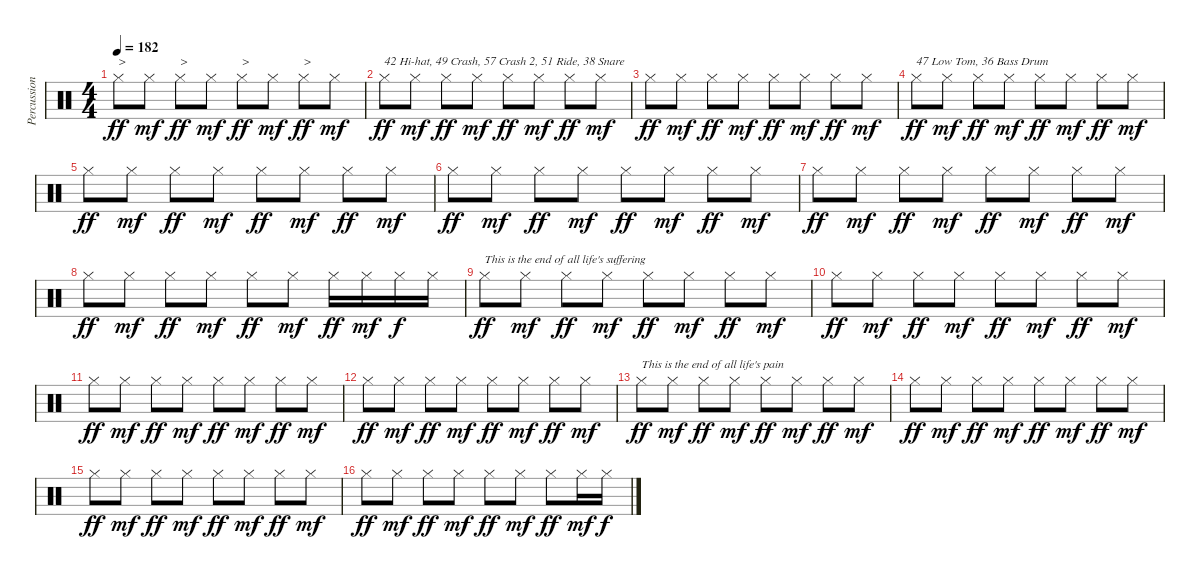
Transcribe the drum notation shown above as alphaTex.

\track ("Percussion" "Percussion") {instrument percussion}
\staff {score}
\articulation defaults
\ts (4 4)
\tempo 182
\clef neutral
\ks c "Hi-Hat (closed)".8{txt ">" dy ff} "Hi-Hat (closed)".8{dy mf} "Hi-Hat (closed)".8{txt ">" dy ff} "Hi-Hat (closed)".8{dy mf} "Hi-Hat (closed)".8{txt ">" dy ff} "Hi-Hat (closed)".8{dy mf} "Hi-Hat (closed)".8{txt ">" dy ff} "Hi-Hat (closed)".8{dy mf}
|
"Hi-Hat (closed)".8{txt "42 Hi-hat, 49 Crash, 57 Crash 2, 51 Ride, 38 Snare" dy ff} "Hi-Hat (closed)".8{dy mf} "Hi-Hat (closed)".8{dy ff} "Hi-Hat (closed)".8{dy mf} "Hi-Hat (closed)".8{dy ff} "Hi-Hat (closed)".8{dy mf} "Hi-Hat (closed)".8{dy ff} "Hi-Hat (closed)".8{dy mf} |
"Hi-Hat (closed)".8{dy ff} "Hi-Hat (closed)".8{dy mf} "Hi-Hat (closed)".8{dy ff} "Hi-Hat (closed)".8{dy mf} "Hi-Hat (closed)".8{dy ff} "Hi-Hat (closed)".8{dy mf} "Hi-Hat (closed)".8{dy ff} "Hi-Hat (closed)".8{dy mf} |
"Hi-Hat (closed)".8{txt "47 Low Tom, 36 Bass Drum" dy ff} "Hi-Hat (closed)".8{dy mf} "Hi-Hat (closed)".8{dy ff} "Hi-Hat (closed)".8{dy mf} "Hi-Hat (closed)".8{dy ff} "Hi-Hat (closed)".8{dy mf} "Hi-Hat (closed)".8{dy ff} "Hi-Hat (closed)".8{dy mf} |
"Hi-Hat (closed)".8{dy ff} "Hi-Hat (closed)".8{dy mf} "Hi-Hat (closed)".8{dy ff} "Hi-Hat (closed)".8{dy mf} "Hi-Hat (closed)".8{dy ff} "Hi-Hat (closed)".8{dy mf} "Hi-Hat (closed)".8{dy ff} "Hi-Hat (closed)".8{dy mf} |
"Hi-Hat (closed)".8{dy ff} "Hi-Hat (closed)".8{dy mf} "Hi-Hat (closed)".8{dy ff} "Hi-Hat (closed)".8{dy mf} "Hi-Hat (closed)".8{dy ff} "Hi-Hat (closed)".8{dy mf} "Hi-Hat (closed)".8{dy ff} "Hi-Hat (closed)".8{dy mf} |
"Hi-Hat (closed)".8{dy ff} "Hi-Hat (closed)".8{dy mf} "Hi-Hat (closed)".8{dy ff} "Hi-Hat (closed)".8{dy mf} "Hi-Hat (closed)".8{dy ff} "Hi-Hat (closed)".8{dy mf} "Hi-Hat (closed)".8{dy ff} "Hi-Hat (closed)".8{dy mf} |
"Hi-Hat (closed)".8{dy ff} "Hi-Hat (closed)".8{dy mf} "Hi-Hat (closed)".8{dy ff} "Hi-Hat (closed)".8{dy mf} "Hi-Hat (closed)".8{dy ff} "Hi-Hat (closed)".8{dy mf} "Hi-Hat (closed)".16{dy ff} "Hi-Hat (closed)".16{dy mf} "Hi-Hat (closed)".16{dy f} "Hi-Hat (closed)".16 |
"Hi-Hat (closed)".8{txt "This is the end of all life's suffering" dy ff} "Hi-Hat (closed)".8{dy mf} "Hi-Hat (closed)".8{dy ff} "Hi-Hat (closed)".8{dy mf} "Hi-Hat (closed)".8{dy ff} "Hi-Hat (closed)".8{dy mf} "Hi-Hat (closed)".8{dy ff} "Hi-Hat (closed)".8{dy mf} |
"Hi-Hat (closed)".8{dy ff} "Hi-Hat (closed)".8{dy mf} "Hi-Hat (closed)".8{dy ff} "Hi-Hat (closed)".8{dy mf} "Hi-Hat (closed)".8{dy ff} "Hi-Hat (closed)".8{dy mf} "Hi-Hat (closed)".8{dy ff} "Hi-Hat (closed)".8{dy mf} |
"Hi-Hat (closed)".8{dy ff} "Hi-Hat (closed)".8{dy mf} "Hi-Hat (closed)".8{dy ff} "Hi-Hat (closed)".8{dy mf} "Hi-Hat (closed)".8{dy ff} "Hi-Hat (closed)".8{dy mf} "Hi-Hat (closed)".8{dy ff} "Hi-Hat (closed)".8{dy mf} |
"Hi-Hat (closed)".8{dy ff} "Hi-Hat (closed)".8{dy mf} "Hi-Hat (closed)".8{dy ff} "Hi-Hat (closed)".8{dy mf} "Hi-Hat (closed)".8{dy ff} "Hi-Hat (closed)".8{dy mf} "Hi-Hat (closed)".8{dy ff} "Hi-Hat (closed)".8{dy mf} |
"Hi-Hat (closed)".8{txt "This is the end of all life's pain" dy ff} "Hi-Hat (closed)".8{dy mf} "Hi-Hat (closed)".8{dy ff} "Hi-Hat (closed)".8{dy mf} "Hi-Hat (closed)".8{dy ff} "Hi-Hat (closed)".8{dy mf} "Hi-Hat (closed)".8{dy ff} "Hi-Hat (closed)".8{dy mf} |
"Hi-Hat (closed)".8{dy ff} "Hi-Hat (closed)".8{dy mf} "Hi-Hat (closed)".8{dy ff} "Hi-Hat (closed)".8{dy mf} "Hi-Hat (closed)".8{dy ff} "Hi-Hat (closed)".8{dy mf} "Hi-Hat (closed)".8{dy ff} "Hi-Hat (closed)".8{dy mf} |
"Hi-Hat (closed)".8{dy ff} "Hi-Hat (closed)".8{dy mf} "Hi-Hat (closed)".8{dy ff} "Hi-Hat (closed)".8{dy mf} "Hi-Hat (closed)".8{dy ff} "Hi-Hat (closed)".8{dy mf} "Hi-Hat (closed)".8{dy ff} "Hi-Hat (closed)".8{dy mf} |
"Hi-Hat (closed)".8{dy ff} "Hi-Hat (closed)".8{dy mf} "Hi-Hat (closed)".8{dy ff} "Hi-Hat (closed)".8{dy mf} "Hi-Hat (closed)".8{dy ff} "Hi-Hat (closed)".8{dy mf} "Hi-Hat (closed)".8{dy ff} "Hi-Hat (closed)".16{dy mf} "Hi-Hat (closed)".16{dy f}
